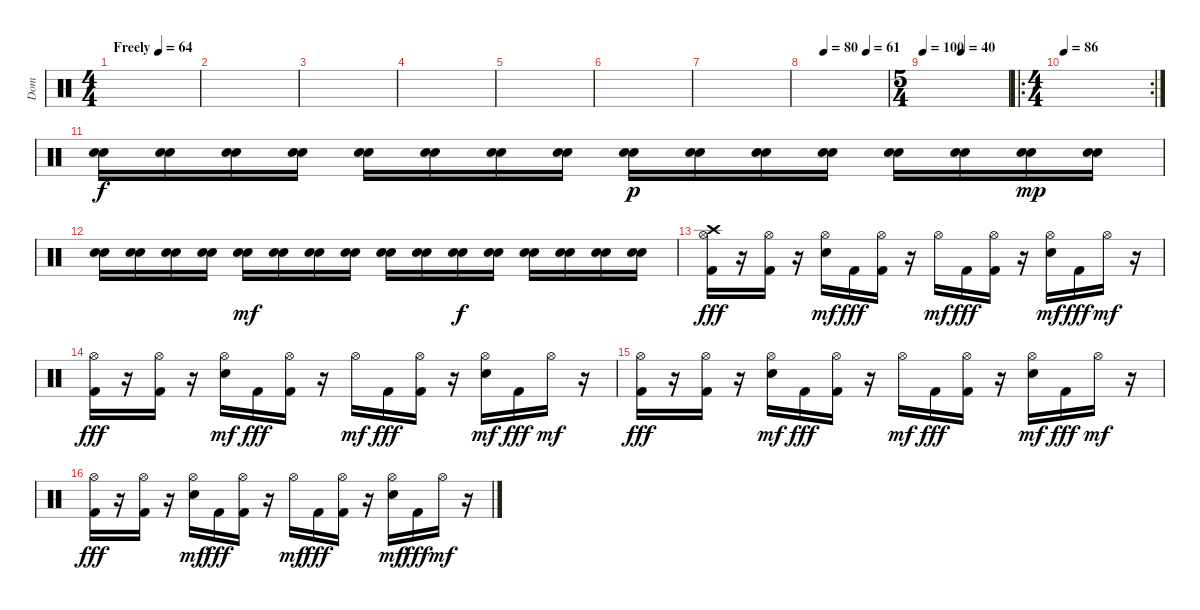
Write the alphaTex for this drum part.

\track ("Dom" "Dom") {instrument percussion}
\staff {score}
\articulation defaults
\ts (4 4)
\tempo (64 "Freely")
\clef neutral
\ks c
|
|
|
|
|
|
|
\tempo (80 0.25)
\tempo (61 0.75)
|
\ts (5 4)
\tempo 100
\tempo (40 0.45)
|
\ro
\rc 2
\ts (4 4)
\tempo 86
|
("Electric Snare (hit)" "Electric Snare (hit)").16 ("Electric Snare (hit)" "Electric Snare (hit)").16 ("Electric Snare (hit)" "Electric Snare (hit)").16 ("Electric Snare (hit)" "Electric Snare (hit)").16 ("Electric Snare (hit)" "Electric Snare (hit)").16 ("Electric Snare (hit)" "Electric Snare (hit)").16 ("Electric Snare (hit)" "Electric Snare (hit)").16 ("Electric Snare (hit)" "Electric Snare (hit)").16 ("Electric Snare (hit)" "Electric Snare (hit)").16{dy p} ("Electric Snare (hit)" "Electric Snare (hit)").16 ("Electric Snare (hit)" "Electric Snare (hit)").16 ("Electric Snare (hit)" "Electric Snare (hit)").16 ("Electric Snare (hit)" "Electric Snare (hit)").16 ("Electric Snare (hit)" "Electric Snare (hit)").16 ("Electric Snare (hit)" "Electric Snare (hit)").16{dy mp} ("Electric Snare (hit)" "Electric Snare (hit)").16 |
("Electric Snare (hit)" "Electric Snare (hit)").16 ("Electric Snare (hit)" "Electric Snare (hit)").16 ("Electric Snare (hit)" "Electric Snare (hit)").16 ("Electric Snare (hit)" "Electric Snare (hit)").16 ("Electric Snare (hit)" "Electric Snare (hit)").16{dy mf} ("Electric Snare (hit)" "Electric Snare (hit)").16 ("Electric Snare (hit)" "Electric Snare (hit)").16 ("Electric Snare (hit)" "Electric Snare (hit)").16 ("Electric Snare (hit)" "Electric Snare (hit)").16 ("Electric Snare (hit)" "Electric Snare (hit)").16 ("Electric Snare (hit)" "Electric Snare (hit)").16{dy f} ("Electric Snare (hit)" "Electric Snare (hit)").16 ("Electric Snare (hit)" "Electric Snare (hit)").16 ("Electric Snare (hit)" "Electric Snare (hit)").16 ("Electric Snare (hit)" "Electric Snare (hit)").16 ("Electric Snare (hit)" "Electric Snare (hit)").16 |
("Crash high (hit)" "Hi-Hat (open)" "Kick (hit) 2").16{dy fff} r.16 ("Hi-Hat (open)" "Kick (hit) 2").16 r.16 ("Hi-Hat (open)" "Electric Snare (hit)").16{dy mf} "Kick (hit) 2".16{dy fff} ("Hi-Hat (open)" "Kick (hit) 2").16 r.16 "Hi-Hat (open)".16{dy mf} "Kick (hit) 2".16{dy fff} ("Hi-Hat (open)" "Kick (hit) 2").16 r.16 ("Hi-Hat (open)" "Electric Snare (hit)").16{dy mf} "Kick (hit) 2".16{dy fff} "Hi-Hat (open)".16{dy mf} r.16 |
("Hi-Hat (open)" "Kick (hit) 2").16{dy fff} r.16 ("Hi-Hat (open)" "Kick (hit) 2").16 r.16 ("Hi-Hat (open)" "Electric Snare (hit)").16{dy mf} "Kick (hit) 2".16{dy fff} ("Hi-Hat (open)" "Kick (hit) 2").16 r.16 "Hi-Hat (open)".16{dy mf} "Kick (hit) 2".16{dy fff} ("Hi-Hat (open)" "Kick (hit) 2").16 r.16 ("Hi-Hat (open)" "Electric Snare (hit)").16{dy mf} "Kick (hit) 2".16{dy fff} "Hi-Hat (open)".16{dy mf} r.16 |
("Hi-Hat (open)" "Kick (hit) 2").16{dy fff} r.16 ("Hi-Hat (open)" "Kick (hit) 2").16 r.16 ("Hi-Hat (open)" "Electric Snare (hit)").16{dy mf} "Kick (hit) 2".16{dy fff} ("Hi-Hat (open)" "Kick (hit) 2").16 r.16 "Hi-Hat (open)".16{dy mf} "Kick (hit) 2".16{dy fff} ("Hi-Hat (open)" "Kick (hit) 2").16 r.16 ("Hi-Hat (open)" "Electric Snare (hit)").16{dy mf} "Kick (hit) 2".16{dy fff} "Hi-Hat (open)".16{dy mf} r.16 |
("Hi-Hat (open)" "Kick (hit) 2").16{dy fff} r.16 ("Hi-Hat (open)" "Kick (hit) 2").16 r.16 ("Hi-Hat (open)" "Electric Snare (hit)").16{dy mf} "Kick (hit) 2".16{dy fff} ("Hi-Hat (open)" "Kick (hit) 2").16 r.16 "Hi-Hat (open)".16{dy mf} "Kick (hit) 2".16{dy fff} ("Hi-Hat (open)" "Kick (hit) 2").16 r.16 ("Hi-Hat (open)" "Electric Snare (hit)").16{dy mf} "Kick (hit) 2".16{dy fff} "Hi-Hat (open)".16{dy mf} r.16
